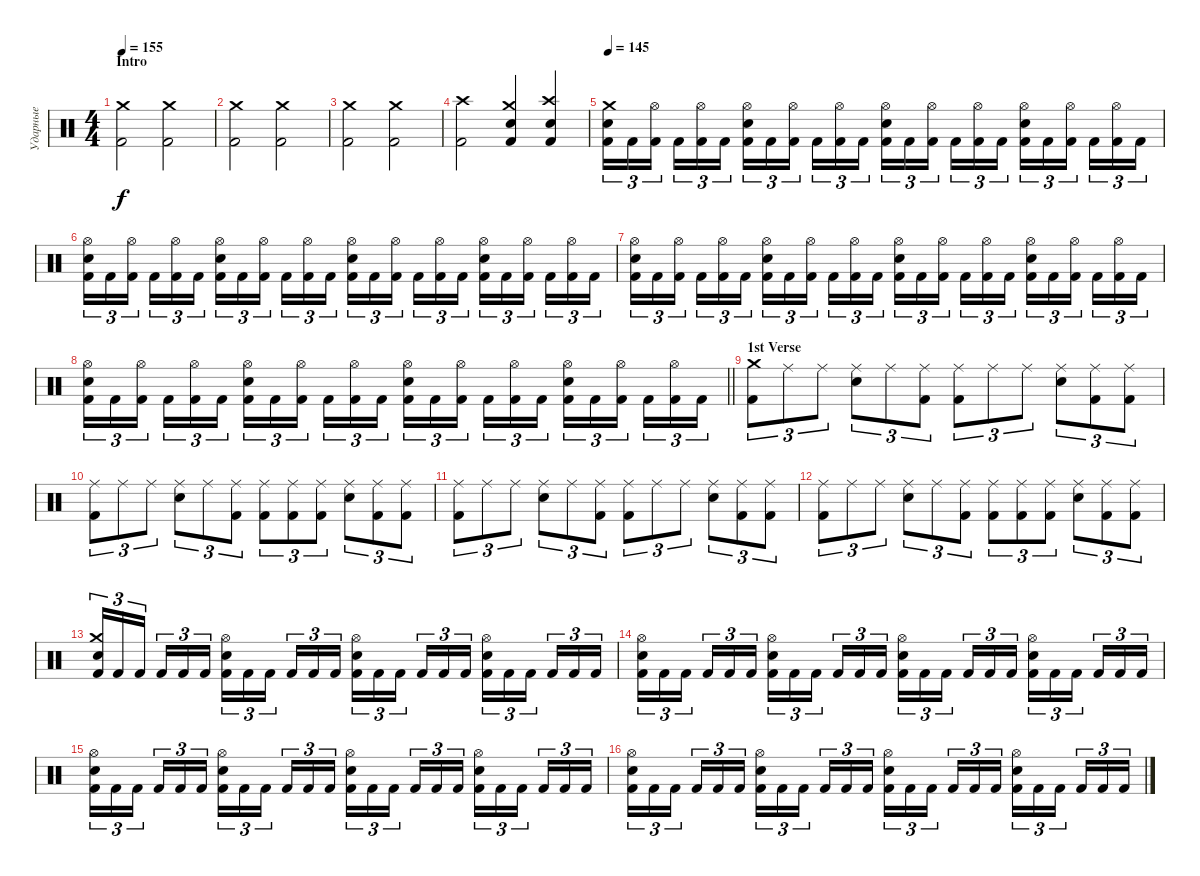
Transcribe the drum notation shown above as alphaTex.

\track ("Ударные" "Ударные") {instrument percussion}
\staff {score}
\articulation defaults
\ts (4 4)
\section ("" "Intro")
\tempo 155
\clef neutral
\ks c
("Kick (hit) 2" "Crash medium (hit)").2{dy f} ("Kick (hit) 2" "Crash medium (hit)").2 |
("Kick (hit) 2" "Crash medium (hit)").2 ("Kick (hit) 2" "Crash medium (hit)").2 |
("Kick (hit) 2" "Crash medium (hit)").2 ("Kick (hit) 2" "Crash medium (hit)").2 |
("Kick (hit) 2" "Crash high (hit)").2 ("Kick (hit) 2" "Electric Snare (hit)" "Crash medium (hit)").4 ("Kick (hit) 2" "Electric Snare (hit)" "Crash high (hit)").4 |
\tempo 145
("Kick (hit) 2" "Electric Snare (hit)" "Crash medium (hit)").16{tu (3 2)} "Kick (hit) 2".16{tu (3 2)} ("Kick (hit) 2" "Hi-Hat (open)").16{tu (3 2) beam splitsecondary} "Kick (hit) 2".16{tu (3 2)} ("Kick (hit) 2" "Hi-Hat (open)").16{tu (3 2)} "Kick (hit) 2".16{tu (3 2)} ("Kick (hit) 2" "Electric Snare (hit)" "Hi-Hat (open)").16{tu (3 2)} "Kick (hit) 2".16{tu (3 2)} ("Kick (hit) 2" "Hi-Hat (open)").16{tu (3 2) beam splitsecondary} "Kick (hit) 2".16{tu (3 2)} ("Kick (hit) 2" "Hi-Hat (open)").16{tu (3 2)} "Kick (hit) 2".16{tu (3 2)} ("Kick (hit) 2" "Electric Snare (hit)" "Hi-Hat (open)").16{tu (3 2)} "Kick (hit) 2".16{tu (3 2)} ("Kick (hit) 2" "Hi-Hat (open)").16{tu (3 2) beam splitsecondary} "Kick (hit) 2".16{tu (3 2)} ("Kick (hit) 2" "Hi-Hat (open)").16{tu (3 2)} "Kick (hit) 2".16{tu (3 2)} ("Kick (hit) 2" "Electric Snare (hit)" "Hi-Hat (open)").16{tu (3 2)} "Kick (hit) 2".16{tu (3 2)} ("Kick (hit) 2" "Hi-Hat (open)").16{tu (3 2) beam splitsecondary} "Kick (hit) 2".16{tu (3 2)} ("Kick (hit) 2" "Hi-Hat (open)").16{tu (3 2)} "Kick (hit) 2".16{tu (3 2)} |
("Kick (hit) 2" "Electric Snare (hit)" "Hi-Hat (open)").16{tu (3 2)} "Kick (hit) 2".16{tu (3 2)} ("Kick (hit) 2" "Hi-Hat (open)").16{tu (3 2) beam splitsecondary} "Kick (hit) 2".16{tu (3 2)} ("Kick (hit) 2" "Hi-Hat (open)").16{tu (3 2)} "Kick (hit) 2".16{tu (3 2)} ("Kick (hit) 2" "Electric Snare (hit)" "Hi-Hat (open)").16{tu (3 2)} "Kick (hit) 2".16{tu (3 2)} ("Kick (hit) 2" "Hi-Hat (open)").16{tu (3 2) beam splitsecondary} "Kick (hit) 2".16{tu (3 2)} ("Kick (hit) 2" "Hi-Hat (open)").16{tu (3 2)} "Kick (hit) 2".16{tu (3 2)} ("Kick (hit) 2" "Electric Snare (hit)" "Hi-Hat (open)").16{tu (3 2)} "Kick (hit) 2".16{tu (3 2)} ("Kick (hit) 2" "Hi-Hat (open)").16{tu (3 2) beam splitsecondary} "Kick (hit) 2".16{tu (3 2)} ("Kick (hit) 2" "Hi-Hat (open)").16{tu (3 2)} "Kick (hit) 2".16{tu (3 2)} ("Kick (hit) 2" "Electric Snare (hit)" "Hi-Hat (open)").16{tu (3 2)} "Kick (hit) 2".16{tu (3 2)} ("Kick (hit) 2" "Hi-Hat (open)").16{tu (3 2) beam splitsecondary} "Kick (hit) 2".16{tu (3 2)} ("Kick (hit) 2" "Hi-Hat (open)").16{tu (3 2)} "Kick (hit) 2".16{tu (3 2)} |
("Kick (hit) 2" "Electric Snare (hit)" "Hi-Hat (open)").16{tu (3 2)} "Kick (hit) 2".16{tu (3 2)} ("Kick (hit) 2" "Hi-Hat (open)").16{tu (3 2) beam splitsecondary} "Kick (hit) 2".16{tu (3 2)} ("Kick (hit) 2" "Hi-Hat (open)").16{tu (3 2)} "Kick (hit) 2".16{tu (3 2)} ("Kick (hit) 2" "Electric Snare (hit)" "Hi-Hat (open)").16{tu (3 2)} "Kick (hit) 2".16{tu (3 2)} ("Kick (hit) 2" "Hi-Hat (open)").16{tu (3 2) beam splitsecondary} "Kick (hit) 2".16{tu (3 2)} ("Kick (hit) 2" "Hi-Hat (open)").16{tu (3 2)} "Kick (hit) 2".16{tu (3 2)} ("Kick (hit) 2" "Electric Snare (hit)" "Hi-Hat (open)").16{tu (3 2)} "Kick (hit) 2".16{tu (3 2)} ("Kick (hit) 2" "Hi-Hat (open)").16{tu (3 2) beam splitsecondary} "Kick (hit) 2".16{tu (3 2)} ("Kick (hit) 2" "Hi-Hat (open)").16{tu (3 2)} "Kick (hit) 2".16{tu (3 2)} ("Kick (hit) 2" "Electric Snare (hit)" "Hi-Hat (open)").16{tu (3 2)} "Kick (hit) 2".16{tu (3 2)} ("Kick (hit) 2" "Hi-Hat (open)").16{tu (3 2) beam splitsecondary} "Kick (hit) 2".16{tu (3 2)} ("Kick (hit) 2" "Hi-Hat (open)").16{tu (3 2)} "Kick (hit) 2".16{tu (3 2)} |
\barLineRight lightlight
("Kick (hit) 2" "Electric Snare (hit)" "Hi-Hat (open)").16{tu (3 2)} "Kick (hit) 2".16{tu (3 2)} ("Kick (hit) 2" "Hi-Hat (open)").16{tu (3 2) beam splitsecondary} "Kick (hit) 2".16{tu (3 2)} ("Kick (hit) 2" "Hi-Hat (open)").16{tu (3 2)} "Kick (hit) 2".16{tu (3 2)} ("Kick (hit) 2" "Electric Snare (hit)" "Hi-Hat (open)").16{tu (3 2)} "Kick (hit) 2".16{tu (3 2)} ("Kick (hit) 2" "Hi-Hat (open)").16{tu (3 2) beam splitsecondary} "Kick (hit) 2".16{tu (3 2)} ("Kick (hit) 2" "Hi-Hat (open)").16{tu (3 2)} "Kick (hit) 2".16{tu (3 2)} ("Kick (hit) 2" "Electric Snare (hit)" "Hi-Hat (open)").16{tu (3 2)} "Kick (hit) 2".16{tu (3 2)} ("Kick (hit) 2" "Hi-Hat (open)").16{tu (3 2) beam splitsecondary} "Kick (hit) 2".16{tu (3 2)} ("Kick (hit) 2" "Hi-Hat (open)").16{tu (3 2)} "Kick (hit) 2".16{tu (3 2)} ("Kick (hit) 2" "Electric Snare (hit)" "Hi-Hat (open)").16{tu (3 2)} "Kick (hit) 2".16{tu (3 2)} ("Kick (hit) 2" "Hi-Hat (open)").16{tu (3 2) beam splitsecondary} "Kick (hit) 2".16{tu (3 2)} ("Kick (hit) 2" "Hi-Hat (open)").16{tu (3 2)} "Kick (hit) 2".16{tu (3 2)} |
\section ("" "1st Verse")
("Kick (hit) 2" "Crash medium (hit)").8{tu (3 2)} "Ride (middle)".8{tu (3 2)} "Ride (middle)".8{tu (3 2)} ("Electric Snare (hit)" "Ride (middle)").8{tu (3 2)} "Ride (middle)".8{tu (3 2)} ("Kick (hit) 2" "Ride (middle)").8{tu (3 2)} ("Kick (hit) 2" "Ride (middle)").8{tu (3 2)} "Ride (middle)".8{tu (3 2)} "Ride (middle)".8{tu (3 2)} ("Electric Snare (hit)" "Ride (middle)").8{tu (3 2)} ("Kick (hit) 2" "Ride (middle)").8{tu (3 2)} ("Kick (hit) 2" "Ride (middle)").8{tu (3 2)} |
("Kick (hit) 2" "Ride (middle)").8{tu (3 2)} "Ride (middle)".8{tu (3 2)} "Ride (middle)".8{tu (3 2)} ("Electric Snare (hit)" "Ride (middle)").8{tu (3 2)} "Ride (middle)".8{tu (3 2)} ("Kick (hit) 2" "Ride (middle)").8{tu (3 2)} ("Kick (hit) 2" "Ride (middle)").8{tu (3 2)} ("Kick (hit) 2" "Ride (middle)").8{tu (3 2)} ("Kick (hit) 2" "Ride (middle)").8{tu (3 2)} ("Electric Snare (hit)" "Ride (middle)").8{tu (3 2)} ("Kick (hit) 2" "Ride (middle)").8{tu (3 2)} ("Kick (hit) 2" "Ride (middle)").8{tu (3 2)} |
("Kick (hit) 2" "Ride (middle)").8{tu (3 2)} "Ride (middle)".8{tu (3 2)} "Ride (middle)".8{tu (3 2)} ("Electric Snare (hit)" "Ride (middle)").8{tu (3 2)} "Ride (middle)".8{tu (3 2)} ("Kick (hit) 2" "Ride (middle)").8{tu (3 2)} ("Kick (hit) 2" "Ride (middle)").8{tu (3 2)} "Ride (middle)".8{tu (3 2)} "Ride (middle)".8{tu (3 2)} ("Electric Snare (hit)" "Ride (middle)").8{tu (3 2)} ("Kick (hit) 2" "Ride (middle)").8{tu (3 2)} ("Kick (hit) 2" "Ride (middle)").8{tu (3 2)} |
("Kick (hit) 2" "Ride (middle)").8{tu (3 2)} "Ride (middle)".8{tu (3 2)} "Ride (middle)".8{tu (3 2)} ("Electric Snare (hit)" "Ride (middle)").8{tu (3 2)} "Ride (middle)".8{tu (3 2)} ("Kick (hit) 2" "Ride (middle)").8{tu (3 2)} ("Kick (hit) 2" "Ride (middle)").8{tu (3 2)} ("Kick (hit) 2" "Ride (middle)").8{tu (3 2)} ("Kick (hit) 2" "Ride (middle)").8{tu (3 2)} ("Electric Snare (hit)" "Ride (middle)").8{tu (3 2)} ("Kick (hit) 2" "Ride (middle)").8{tu (3 2)} ("Kick (hit) 2" "Ride (middle)").8{tu (3 2)} |
("Kick (hit) 2" "Electric Snare (hit)" "Crash medium (hit)").16{tu (3 2)} "Kick (hit) 2".16{tu (3 2)} "Kick (hit) 2".16{tu (3 2) beam splitsecondary} "Kick (hit) 2".16{tu (3 2)} "Kick (hit) 2".16{tu (3 2)} "Kick (hit) 2".16{tu (3 2)} ("Kick (hit) 2" "Electric Snare (hit)" "Hi-Hat (open)").16{tu (3 2)} "Kick (hit) 2".16{tu (3 2)} "Kick (hit) 2".16{tu (3 2) beam splitsecondary} "Kick (hit) 2".16{tu (3 2)} "Kick (hit) 2".16{tu (3 2)} "Kick (hit) 2".16{tu (3 2)} ("Kick (hit) 2" "Electric Snare (hit)" "Hi-Hat (open)").16{tu (3 2)} "Kick (hit) 2".16{tu (3 2)} "Kick (hit) 2".16{tu (3 2) beam splitsecondary} "Kick (hit) 2".16{tu (3 2)} "Kick (hit) 2".16{tu (3 2)} "Kick (hit) 2".16{tu (3 2)} ("Kick (hit) 2" "Electric Snare (hit)" "Hi-Hat (open)").16{tu (3 2)} "Kick (hit) 2".16{tu (3 2)} "Kick (hit) 2".16{tu (3 2) beam splitsecondary} "Kick (hit) 2".16{tu (3 2)} "Kick (hit) 2".16{tu (3 2)} "Kick (hit) 2".16{tu (3 2)} |
("Kick (hit) 2" "Electric Snare (hit)" "Hi-Hat (open)").16{tu (3 2)} "Kick (hit) 2".16{tu (3 2)} "Kick (hit) 2".16{tu (3 2) beam splitsecondary} "Kick (hit) 2".16{tu (3 2)} "Kick (hit) 2".16{tu (3 2)} "Kick (hit) 2".16{tu (3 2)} ("Kick (hit) 2" "Electric Snare (hit)" "Hi-Hat (open)").16{tu (3 2)} "Kick (hit) 2".16{tu (3 2)} "Kick (hit) 2".16{tu (3 2) beam splitsecondary} "Kick (hit) 2".16{tu (3 2)} "Kick (hit) 2".16{tu (3 2)} "Kick (hit) 2".16{tu (3 2)} ("Kick (hit) 2" "Electric Snare (hit)" "Hi-Hat (open)").16{tu (3 2)} "Kick (hit) 2".16{tu (3 2)} "Kick (hit) 2".16{tu (3 2) beam splitsecondary} "Kick (hit) 2".16{tu (3 2)} "Kick (hit) 2".16{tu (3 2)} "Kick (hit) 2".16{tu (3 2)} ("Kick (hit) 2" "Electric Snare (hit)" "Hi-Hat (open)").16{tu (3 2)} "Kick (hit) 2".16{tu (3 2)} "Kick (hit) 2".16{tu (3 2) beam splitsecondary} "Kick (hit) 2".16{tu (3 2)} "Kick (hit) 2".16{tu (3 2)} "Kick (hit) 2".16{tu (3 2)} |
("Kick (hit) 2" "Electric Snare (hit)" "Hi-Hat (open)").16{tu (3 2)} "Kick (hit) 2".16{tu (3 2)} "Kick (hit) 2".16{tu (3 2) beam splitsecondary} "Kick (hit) 2".16{tu (3 2)} "Kick (hit) 2".16{tu (3 2)} "Kick (hit) 2".16{tu (3 2)} ("Kick (hit) 2" "Electric Snare (hit)" "Hi-Hat (open)").16{tu (3 2)} "Kick (hit) 2".16{tu (3 2)} "Kick (hit) 2".16{tu (3 2) beam splitsecondary} "Kick (hit) 2".16{tu (3 2)} "Kick (hit) 2".16{tu (3 2)} "Kick (hit) 2".16{tu (3 2)} ("Kick (hit) 2" "Electric Snare (hit)" "Hi-Hat (open)").16{tu (3 2)} "Kick (hit) 2".16{tu (3 2)} "Kick (hit) 2".16{tu (3 2) beam splitsecondary} "Kick (hit) 2".16{tu (3 2)} "Kick (hit) 2".16{tu (3 2)} "Kick (hit) 2".16{tu (3 2)} ("Kick (hit) 2" "Electric Snare (hit)" "Hi-Hat (open)").16{tu (3 2)} "Kick (hit) 2".16{tu (3 2)} "Kick (hit) 2".16{tu (3 2) beam splitsecondary} "Kick (hit) 2".16{tu (3 2)} "Kick (hit) 2".16{tu (3 2)} "Kick (hit) 2".16{tu (3 2)} |
("Kick (hit) 2" "Electric Snare (hit)" "Hi-Hat (open)").16{tu (3 2)} "Kick (hit) 2".16{tu (3 2)} "Kick (hit) 2".16{tu (3 2) beam splitsecondary} "Kick (hit) 2".16{tu (3 2)} "Kick (hit) 2".16{tu (3 2)} "Kick (hit) 2".16{tu (3 2)} ("Kick (hit) 2" "Electric Snare (hit)" "Hi-Hat (open)").16{tu (3 2)} "Kick (hit) 2".16{tu (3 2)} "Kick (hit) 2".16{tu (3 2) beam splitsecondary} "Kick (hit) 2".16{tu (3 2)} "Kick (hit) 2".16{tu (3 2)} "Kick (hit) 2".16{tu (3 2)} ("Kick (hit) 2" "Electric Snare (hit)" "Hi-Hat (open)").16{tu (3 2)} "Kick (hit) 2".16{tu (3 2)} "Kick (hit) 2".16{tu (3 2) beam splitsecondary} "Kick (hit) 2".16{tu (3 2)} "Kick (hit) 2".16{tu (3 2)} "Kick (hit) 2".16{tu (3 2)} ("Kick (hit) 2" "Electric Snare (hit)" "Hi-Hat (open)").16{tu (3 2)} "Kick (hit) 2".16{tu (3 2)} "Kick (hit) 2".16{tu (3 2) beam splitsecondary} "Kick (hit) 2".16{tu (3 2)} "Kick (hit) 2".16{tu (3 2)} "Kick (hit) 2".16{tu (3 2)}
